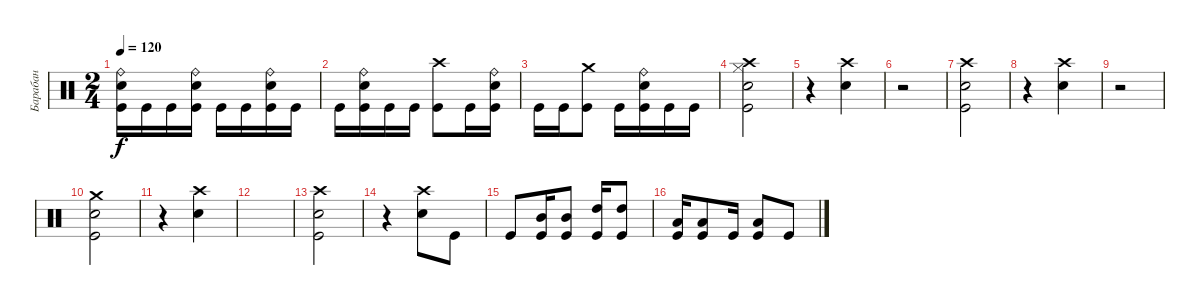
\track ("Барабан" "Барабан") {instrument percussion}
\staff {score}
\articulation defaults
\ts (2 4)
\tempo 120
\clef neutral
\ks c
("Ride (bell)" "Electric Snare (hit)" "Kick (hit)").16{dy f} "Kick (hit)".16 "Kick (hit)".16 ("Ride (bell)" "Electric Snare (hit)" "Kick (hit)").16 "Kick (hit)".16 "Kick (hit)".16 ("Ride (bell)" "Electric Snare (hit)" "Kick (hit)").16 "Kick (hit)".16 |
"Kick (hit)".16 ("Ride (bell)" "Electric Snare (hit)" "Kick (hit)").16 "Kick (hit)".16 "Kick (hit)".16 ("Crash high (hit)" "Kick (hit)").8 "Kick (hit)".16 ("Ride (bell)" "Electric Snare (hit)" "Kick (hit)").16 |
"Kick (hit)".16 "Kick (hit)".16 ("Crash medium (hit)" "Kick (hit)").8 "Kick (hit)".16 ("Ride (bell)" "Electric Snare (hit)" "Kick (hit)").16 "Kick (hit)".16 "Kick (hit)".16 |
("Crash high (hit)" "Hi-Hat (closed)" "Electric Snare (hit)" "Kick (hit)").2 |
r.4 ("Electric Snare (hit)" "Crash high (hit)").4 |
r.2 |
("Crash high (hit)" "Electric Snare (hit)" "Kick (hit)").2 |
r.4 ("Electric Snare (hit)" "Crash high (hit)").4 |
r.2 |
("Crash medium (hit)" "Electric Snare (hit)" "Kick (hit)").2 |
r.4 ("Electric Snare (hit)" "Crash high (hit)").4 |
|
("Crash high (hit)" "Electric Snare (hit)" "Kick (hit)").2 |
r.4 ("Electric Snare (hit)" "Crash high (hit)").8 "Kick (hit)".8 |
"Kick (hit)".8 ("Mid Tom (hit)" "Kick (hit)").16 ("Mid Tom (hit)" "Kick (hit)").8 ("High Tom (hit)" "Kick (hit)").16 ("High Tom (hit)" "Kick (hit)").8 |
("Low Tom (hit)" "Kick (hit)").16 ("Low Tom (hit)" "Kick (hit)").8 "Kick (hit)".16 ("Low Tom (hit)" "Kick (hit)").8 "Kick (hit)".8
